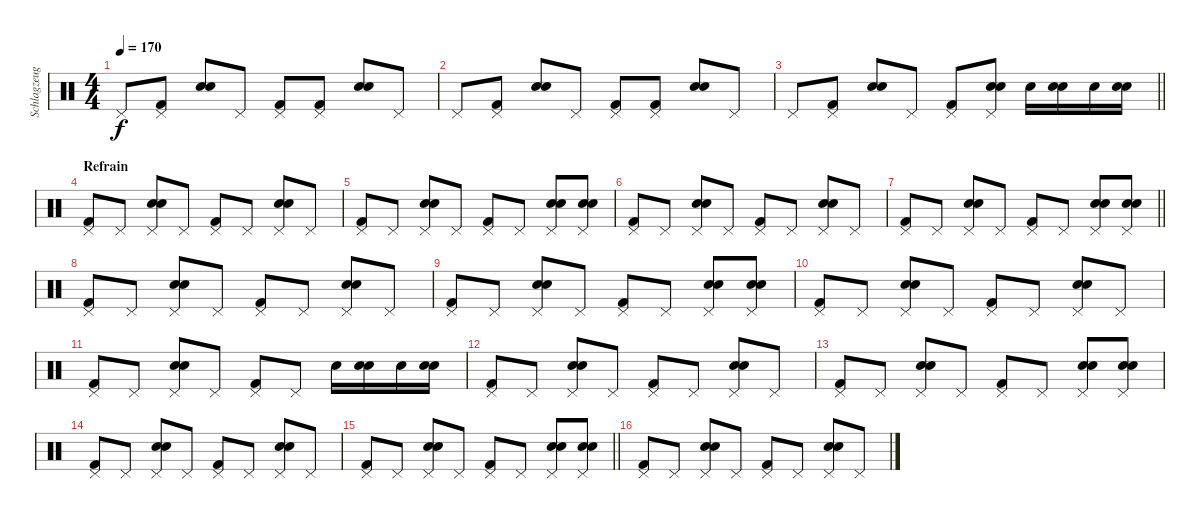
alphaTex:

\track ("Schlagzeug" "Schlagzeug") {instrument percussion}
\staff {score}
\articulation defaults
\ts (4 4)
\tempo 170
\clef neutral
\ks c "Pedal Hi-Hat (hit)".8{dy f}
("Pedal Hi-Hat (hit)" "Kick (hit) 2").8 ("Snare (hit) 2" "Snare (hit) 2").8 "Pedal Hi-Hat (hit)".8 ("Pedal Hi-Hat (hit)" "Kick (hit) 2").8 ("Pedal Hi-Hat (hit)" "Kick (hit) 2").8 ("Snare (hit) 2" "Snare (hit) 2").8 "Pedal Hi-Hat (hit)".8 |
"Pedal Hi-Hat (hit)".8 ("Pedal Hi-Hat (hit)" "Kick (hit) 2").8 ("Snare (hit) 2" "Snare (hit) 2").8 "Pedal Hi-Hat (hit)".8 ("Pedal Hi-Hat (hit)" "Kick (hit) 2").8 ("Pedal Hi-Hat (hit)" "Kick (hit) 2").8 ("Snare (hit) 2" "Snare (hit) 2").8 "Pedal Hi-Hat (hit)".8 |
\barLineRight lightlight "Pedal Hi-Hat (hit)".8
("Pedal Hi-Hat (hit)" "Kick (hit) 2").8 ("Snare (hit) 2" "Snare (hit) 2").8 "Pedal Hi-Hat (hit)".8 ("Pedal Hi-Hat (hit)" "Kick (hit) 2").8 ("Pedal Hi-Hat (hit)" "Snare (hit) 2" "Snare (hit) 2").8 "Snare (hit) 2".16 ("Snare (hit) 2" "Snare (hit) 2").16 "Snare (hit) 2".16 ("Snare (hit) 2" "Snare (hit) 2").16 |
\section ("" "Refrain")
("Pedal Hi-Hat (hit)" "Kick (hit) 2").8 "Pedal Hi-Hat (hit)".8 ("Pedal Hi-Hat (hit)" "Snare (hit) 2" "Snare (hit) 2").8 "Pedal Hi-Hat (hit)".8 ("Pedal Hi-Hat (hit)" "Kick (hit) 2").8 "Pedal Hi-Hat (hit)".8 ("Pedal Hi-Hat (hit)" "Snare (hit) 2" "Snare (hit) 2").8 "Pedal Hi-Hat (hit)".8 |
("Pedal Hi-Hat (hit)" "Kick (hit) 2").8 "Pedal Hi-Hat (hit)".8 ("Pedal Hi-Hat (hit)" "Snare (hit) 2" "Snare (hit) 2").8 "Pedal Hi-Hat (hit)".8 ("Pedal Hi-Hat (hit)" "Kick (hit) 2").8 "Pedal Hi-Hat (hit)".8 ("Pedal Hi-Hat (hit)" "Snare (hit) 2" "Snare (hit) 2").8 ("Pedal Hi-Hat (hit)" "Snare (hit) 2" "Snare (hit) 2").8 |
("Pedal Hi-Hat (hit)" "Kick (hit) 2").8 "Pedal Hi-Hat (hit)".8 ("Pedal Hi-Hat (hit)" "Snare (hit) 2" "Snare (hit) 2").8 "Pedal Hi-Hat (hit)".8 ("Pedal Hi-Hat (hit)" "Kick (hit) 2").8 "Pedal Hi-Hat (hit)".8 ("Pedal Hi-Hat (hit)" "Snare (hit) 2" "Snare (hit) 2").8 "Pedal Hi-Hat (hit)".8 |
\barLineRight lightlight
("Pedal Hi-Hat (hit)" "Kick (hit) 2").8 "Pedal Hi-Hat (hit)".8 ("Pedal Hi-Hat (hit)" "Snare (hit) 2" "Snare (hit) 2").8 "Pedal Hi-Hat (hit)".8 ("Pedal Hi-Hat (hit)" "Kick (hit) 2").8 "Pedal Hi-Hat (hit)".8 ("Pedal Hi-Hat (hit)" "Snare (hit) 2" "Snare (hit) 2").8 ("Pedal Hi-Hat (hit)" "Snare (hit) 2" "Snare (hit) 2").8 |
("Pedal Hi-Hat (hit)" "Kick (hit) 2").8 "Pedal Hi-Hat (hit)".8 ("Pedal Hi-Hat (hit)" "Snare (hit) 2" "Snare (hit) 2").8 "Pedal Hi-Hat (hit)".8 ("Pedal Hi-Hat (hit)" "Kick (hit) 2").8 "Pedal Hi-Hat (hit)".8 ("Pedal Hi-Hat (hit)" "Snare (hit) 2" "Snare (hit) 2").8 "Pedal Hi-Hat (hit)".8 |
("Pedal Hi-Hat (hit)" "Kick (hit) 2").8 "Pedal Hi-Hat (hit)".8 ("Pedal Hi-Hat (hit)" "Snare (hit) 2" "Snare (hit) 2").8 "Pedal Hi-Hat (hit)".8 ("Pedal Hi-Hat (hit)" "Kick (hit) 2").8 "Pedal Hi-Hat (hit)".8 ("Pedal Hi-Hat (hit)" "Snare (hit) 2" "Snare (hit) 2").8 ("Pedal Hi-Hat (hit)" "Snare (hit) 2" "Snare (hit) 2").8 |
("Pedal Hi-Hat (hit)" "Kick (hit) 2").8 "Pedal Hi-Hat (hit)".8 ("Pedal Hi-Hat (hit)" "Snare (hit) 2" "Snare (hit) 2").8 "Pedal Hi-Hat (hit)".8 ("Pedal Hi-Hat (hit)" "Kick (hit) 2").8 "Pedal Hi-Hat (hit)".8 ("Pedal Hi-Hat (hit)" "Snare (hit) 2" "Snare (hit) 2").8 "Pedal Hi-Hat (hit)".8 |
("Pedal Hi-Hat (hit)" "Kick (hit) 2").8 "Pedal Hi-Hat (hit)".8 ("Pedal Hi-Hat (hit)" "Snare (hit) 2" "Snare (hit) 2").8 "Pedal Hi-Hat (hit)".8 ("Pedal Hi-Hat (hit)" "Kick (hit) 2").8 "Pedal Hi-Hat (hit)".8 "Snare (hit) 2".16 ("Snare (hit) 2" "Snare (hit) 2").16 "Snare (hit) 2".16 ("Snare (hit) 2" "Snare (hit) 2").16 |
("Pedal Hi-Hat (hit)" "Kick (hit) 2").8 "Pedal Hi-Hat (hit)".8 ("Pedal Hi-Hat (hit)" "Snare (hit) 2" "Snare (hit) 2").8 "Pedal Hi-Hat (hit)".8 ("Pedal Hi-Hat (hit)" "Kick (hit) 2").8 "Pedal Hi-Hat (hit)".8 ("Pedal Hi-Hat (hit)" "Snare (hit) 2" "Snare (hit) 2").8 "Pedal Hi-Hat (hit)".8 |
("Pedal Hi-Hat (hit)" "Kick (hit) 2").8 "Pedal Hi-Hat (hit)".8 ("Pedal Hi-Hat (hit)" "Snare (hit) 2" "Snare (hit) 2").8 "Pedal Hi-Hat (hit)".8 ("Pedal Hi-Hat (hit)" "Kick (hit) 2").8 "Pedal Hi-Hat (hit)".8 ("Pedal Hi-Hat (hit)" "Snare (hit) 2" "Snare (hit) 2").8 ("Pedal Hi-Hat (hit)" "Snare (hit) 2" "Snare (hit) 2").8 |
("Pedal Hi-Hat (hit)" "Kick (hit) 2").8 "Pedal Hi-Hat (hit)".8 ("Pedal Hi-Hat (hit)" "Snare (hit) 2" "Snare (hit) 2").8 "Pedal Hi-Hat (hit)".8 ("Pedal Hi-Hat (hit)" "Kick (hit) 2").8 "Pedal Hi-Hat (hit)".8 ("Pedal Hi-Hat (hit)" "Snare (hit) 2" "Snare (hit) 2").8 "Pedal Hi-Hat (hit)".8 |
\barLineRight lightlight
("Pedal Hi-Hat (hit)" "Kick (hit) 2").8 "Pedal Hi-Hat (hit)".8 ("Pedal Hi-Hat (hit)" "Snare (hit) 2" "Snare (hit) 2").8 "Pedal Hi-Hat (hit)".8 ("Pedal Hi-Hat (hit)" "Kick (hit) 2").8 "Pedal Hi-Hat (hit)".8 ("Pedal Hi-Hat (hit)" "Snare (hit) 2" "Snare (hit) 2").8 ("Pedal Hi-Hat (hit)" "Snare (hit) 2" "Snare (hit) 2").8 |
("Pedal Hi-Hat (hit)" "Kick (hit) 2").8 "Pedal Hi-Hat (hit)".8 ("Pedal Hi-Hat (hit)" "Snare (hit) 2" "Snare (hit) 2").8 "Pedal Hi-Hat (hit)".8 ("Pedal Hi-Hat (hit)" "Kick (hit) 2").8 "Pedal Hi-Hat (hit)".8 ("Pedal Hi-Hat (hit)" "Snare (hit) 2" "Snare (hit) 2").8 "Pedal Hi-Hat (hit)".8
